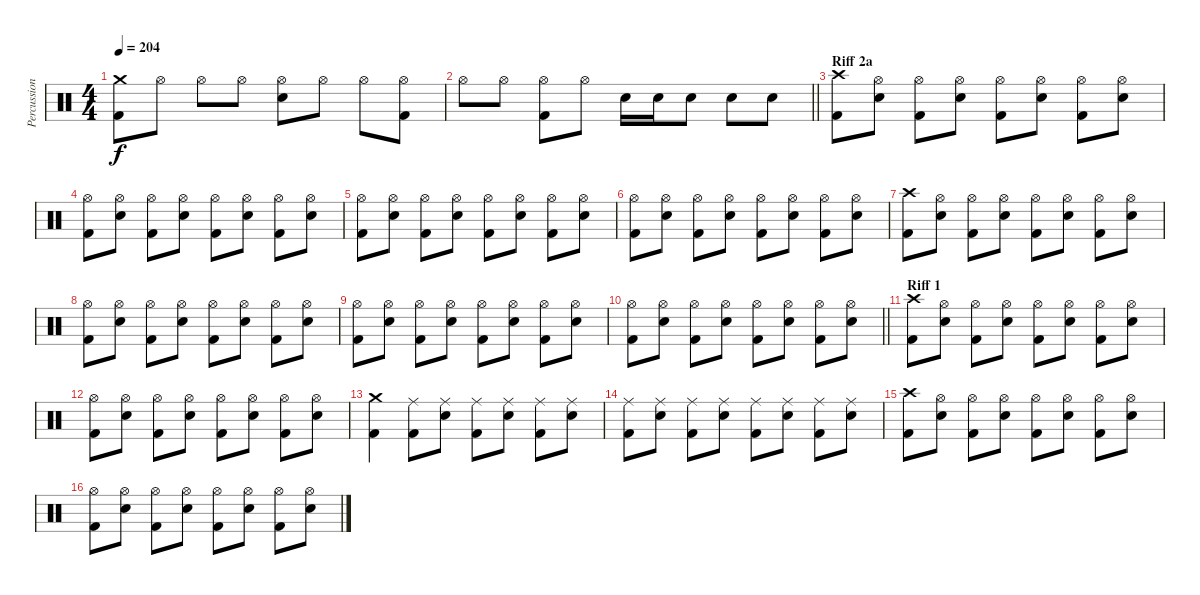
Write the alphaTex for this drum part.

\track ("Percussions" "Percussion") {instrument percussion}
\staff {score}
\articulation defaults
\ts (4 4)
\tempo 204
\clef neutral
\ks c
("Crash medium (hit)" "Kick (hit) 2").8{dy f} "Hi-Hat (open)".8 "Hi-Hat (open)".8 "Hi-Hat (open)".8 ("Hi-Hat (open)" "Electric Snare (hit)").8 "Hi-Hat (open)".8 "Hi-Hat (open)".8 ("Hi-Hat (open)" "Kick (hit) 2").8 |
\barLineRight lightlight "Hi-Hat (open)".8 "Hi-Hat (open)".8
("Hi-Hat (open)" "Kick (hit) 2").8 "Hi-Hat (open)".8 "Electric Snare (hit)".16 "Electric Snare (hit)".16 "Electric Snare (hit)".8 "Electric Snare (hit)".8 "Electric Snare (hit)".8 |
\section ("" "Riff 2a")
("Crash high (hit)" "Kick (hit) 2").8 ("Hi-Hat (open)" "Electric Snare (hit)").8 ("Hi-Hat (open)" "Kick (hit) 2").8 ("Hi-Hat (open)" "Electric Snare (hit)").8 ("Hi-Hat (open)" "Kick (hit) 2").8 ("Hi-Hat (open)" "Electric Snare (hit)").8 ("Hi-Hat (open)" "Kick (hit) 2").8 ("Hi-Hat (open)" "Electric Snare (hit)").8 |
("Hi-Hat (open)" "Kick (hit) 2").8 ("Hi-Hat (open)" "Electric Snare (hit)").8 ("Hi-Hat (open)" "Kick (hit) 2").8 ("Hi-Hat (open)" "Electric Snare (hit)").8 ("Hi-Hat (open)" "Kick (hit) 2").8 ("Hi-Hat (open)" "Electric Snare (hit)").8 ("Hi-Hat (open)" "Kick (hit) 2").8 ("Hi-Hat (open)" "Electric Snare (hit)").8 |
("Hi-Hat (open)" "Kick (hit) 2").8 ("Hi-Hat (open)" "Electric Snare (hit)").8 ("Hi-Hat (open)" "Kick (hit) 2").8 ("Hi-Hat (open)" "Electric Snare (hit)").8 ("Hi-Hat (open)" "Kick (hit) 2").8 ("Hi-Hat (open)" "Electric Snare (hit)").8 ("Hi-Hat (open)" "Kick (hit) 2").8 ("Hi-Hat (open)" "Electric Snare (hit)").8 |
("Hi-Hat (open)" "Kick (hit) 2").8 ("Hi-Hat (open)" "Electric Snare (hit)").8 ("Hi-Hat (open)" "Kick (hit) 2").8 ("Hi-Hat (open)" "Electric Snare (hit)").8 ("Hi-Hat (open)" "Kick (hit) 2").8 ("Hi-Hat (open)" "Electric Snare (hit)").8 ("Hi-Hat (open)" "Kick (hit) 2").8 ("Hi-Hat (open)" "Electric Snare (hit)").8 |
("Crash high (hit)" "Kick (hit) 2").8 ("Hi-Hat (open)" "Electric Snare (hit)").8 ("Hi-Hat (open)" "Kick (hit) 2").8 ("Hi-Hat (open)" "Electric Snare (hit)").8 ("Hi-Hat (open)" "Kick (hit) 2").8 ("Hi-Hat (open)" "Electric Snare (hit)").8 ("Hi-Hat (open)" "Kick (hit) 2").8 ("Hi-Hat (open)" "Electric Snare (hit)").8 |
("Hi-Hat (open)" "Kick (hit) 2").8 ("Hi-Hat (open)" "Electric Snare (hit)").8 ("Hi-Hat (open)" "Kick (hit) 2").8 ("Hi-Hat (open)" "Electric Snare (hit)").8 ("Hi-Hat (open)" "Kick (hit) 2").8 ("Hi-Hat (open)" "Electric Snare (hit)").8 ("Hi-Hat (open)" "Kick (hit) 2").8 ("Hi-Hat (open)" "Electric Snare (hit)").8 |
("Hi-Hat (open)" "Kick (hit) 2").8 ("Hi-Hat (open)" "Electric Snare (hit)").8 ("Hi-Hat (open)" "Kick (hit) 2").8 ("Hi-Hat (open)" "Electric Snare (hit)").8 ("Hi-Hat (open)" "Kick (hit) 2").8 ("Hi-Hat (open)" "Electric Snare (hit)").8 ("Hi-Hat (open)" "Kick (hit) 2").8 ("Hi-Hat (open)" "Electric Snare (hit)").8 |
\barLineRight lightlight
("Hi-Hat (open)" "Kick (hit) 2").8 ("Hi-Hat (open)" "Electric Snare (hit)").8 ("Hi-Hat (open)" "Kick (hit) 2").8 ("Hi-Hat (open)" "Electric Snare (hit)").8 ("Hi-Hat (open)" "Kick (hit) 2").8 ("Hi-Hat (open)" "Electric Snare (hit)").8 ("Hi-Hat (open)" "Kick (hit) 2").8 ("Hi-Hat (open)" "Electric Snare (hit)").8 |
\section ("" "Riff 1")
("Crash high (hit)" "Kick (hit) 2").8 ("Hi-Hat (open)" "Electric Snare (hit)").8 ("Hi-Hat (open)" "Kick (hit) 2").8 ("Hi-Hat (open)" "Electric Snare (hit)").8 ("Hi-Hat (open)" "Kick (hit) 2").8 ("Hi-Hat (open)" "Electric Snare (hit)").8 ("Hi-Hat (open)" "Kick (hit) 2").8 ("Hi-Hat (open)" "Electric Snare (hit)").8 |
("Hi-Hat (open)" "Kick (hit) 2").8 ("Hi-Hat (open)" "Electric Snare (hit)").8 ("Hi-Hat (open)" "Kick (hit) 2").8 ("Hi-Hat (open)" "Electric Snare (hit)").8 ("Hi-Hat (open)" "Kick (hit) 2").8 ("Hi-Hat (open)" "Electric Snare (hit)").8 ("Hi-Hat (open)" "Kick (hit) 2").8 ("Hi-Hat (open)" "Electric Snare (hit)").8 |
("Crash medium (hit)" "Kick (hit) 2").4 ("Ride (middle)" "Kick (hit) 2").8 ("Ride (middle)" "Electric Snare (hit)").8 ("Ride (middle)" "Kick (hit) 2").8 ("Ride (middle)" "Electric Snare (hit)").8 ("Ride (middle)" "Kick (hit) 2").8 ("Ride (middle)" "Electric Snare (hit)").8 |
("Ride (middle)" "Kick (hit) 2").8 ("Ride (middle)" "Electric Snare (hit)").8 ("Ride (middle)" "Kick (hit) 2").8 ("Ride (middle)" "Electric Snare (hit)").8 ("Ride (middle)" "Kick (hit) 2").8 ("Ride (middle)" "Electric Snare (hit)").8 ("Ride (middle)" "Kick (hit) 2").8 ("Ride (middle)" "Electric Snare (hit)").8 |
("Crash high (hit)" "Kick (hit) 2").8 ("Hi-Hat (open)" "Electric Snare (hit)").8 ("Hi-Hat (open)" "Kick (hit) 2").8 ("Hi-Hat (open)" "Electric Snare (hit)").8 ("Hi-Hat (open)" "Kick (hit) 2").8 ("Hi-Hat (open)" "Electric Snare (hit)").8 ("Hi-Hat (open)" "Kick (hit) 2").8 ("Hi-Hat (open)" "Electric Snare (hit)").8 |
("Hi-Hat (open)" "Kick (hit) 2").8 ("Hi-Hat (open)" "Electric Snare (hit)").8 ("Hi-Hat (open)" "Kick (hit) 2").8 ("Hi-Hat (open)" "Electric Snare (hit)").8 ("Hi-Hat (open)" "Kick (hit) 2").8 ("Hi-Hat (open)" "Electric Snare (hit)").8 ("Hi-Hat (open)" "Kick (hit) 2").8 ("Hi-Hat (open)" "Electric Snare (hit)").8
